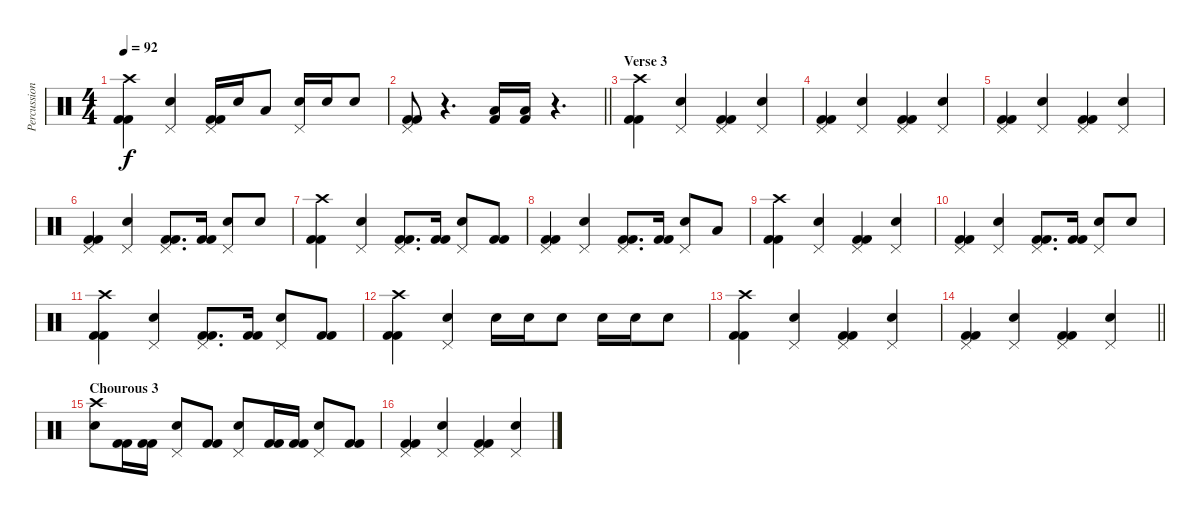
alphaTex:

\track ("Percussion" "Percussion") {instrument percussion}
\staff {score}
\articulation defaults
\ts (4 4)
\tempo 92
\clef neutral
\ks c
("Crash high (hit)" "Kick (hit) 2" "Kick (hit) 2").4{dy f} ("Pedal Hi-Hat (hit)" "Electric Snare (hit)").4 ("Pedal Hi-Hat (hit)" "Kick (hit) 2" "Kick (hit) 2").16 "Electric Snare (hit)".16 "Low Tom (hit)".8 ("Pedal Hi-Hat (hit)" "Electric Snare (hit)").16 "Electric Snare (hit)".16 "Electric Snare (hit)".8 |
\barLineRight lightlight
("Pedal Hi-Hat (hit)" "Kick (hit) 2" "Kick (hit) 2").8 r.4{d} ("Low Tom (hit)" "Kick (hit) 2").16 ("Low Tom (hit)" "Kick (hit) 2").16 r.4{d} |
\section ("" "Verse 3")
("Crash high (hit)" "Kick (hit) 2" "Kick (hit) 2").4 ("Pedal Hi-Hat (hit)" "Electric Snare (hit)").4 ("Pedal Hi-Hat (hit)" "Kick (hit) 2" "Kick (hit) 2").4 ("Pedal Hi-Hat (hit)" "Electric Snare (hit)").4 |
("Pedal Hi-Hat (hit)" "Kick (hit) 2" "Kick (hit) 2").4 ("Pedal Hi-Hat (hit)" "Electric Snare (hit)").4 ("Pedal Hi-Hat (hit)" "Kick (hit) 2" "Kick (hit) 2").4 ("Pedal Hi-Hat (hit)" "Electric Snare (hit)").4 |
("Pedal Hi-Hat (hit)" "Kick (hit) 2" "Kick (hit) 2").4 ("Pedal Hi-Hat (hit)" "Electric Snare (hit)").4 ("Pedal Hi-Hat (hit)" "Kick (hit) 2" "Kick (hit) 2").4 ("Pedal Hi-Hat (hit)" "Electric Snare (hit)").4 |
("Pedal Hi-Hat (hit)" "Kick (hit) 2" "Kick (hit) 2").4 ("Pedal Hi-Hat (hit)" "Electric Snare (hit)").4 ("Pedal Hi-Hat (hit)" "Kick (hit) 2" "Kick (hit) 2").8{d} ("Kick (hit) 2" "Kick (hit) 2").16 ("Pedal Hi-Hat (hit)" "Electric Snare (hit)").8 "Electric Snare (hit)".8 |
("Crash high (hit)" "Kick (hit) 2" "Kick (hit) 2").4 ("Pedal Hi-Hat (hit)" "Electric Snare (hit)").4 ("Pedal Hi-Hat (hit)" "Kick (hit) 2" "Kick (hit) 2").8{d} ("Kick (hit) 2" "Kick (hit) 2").16 ("Pedal Hi-Hat (hit)" "Electric Snare (hit)").8 ("Kick (hit) 2" "Kick (hit) 2").8 |
("Pedal Hi-Hat (hit)" "Kick (hit) 2" "Kick (hit) 2").4 ("Pedal Hi-Hat (hit)" "Electric Snare (hit)").4 ("Pedal Hi-Hat (hit)" "Kick (hit) 2" "Kick (hit) 2").8{d} ("Kick (hit) 2" "Kick (hit) 2").16 ("Pedal Hi-Hat (hit)" "Electric Snare (hit)").8 "Low Tom (hit)".8 |
("Crash high (hit)" "Kick (hit) 2" "Kick (hit) 2").4 ("Pedal Hi-Hat (hit)" "Electric Snare (hit)").4 ("Pedal Hi-Hat (hit)" "Kick (hit) 2" "Kick (hit) 2").4 ("Pedal Hi-Hat (hit)" "Electric Snare (hit)").4 |
("Pedal Hi-Hat (hit)" "Kick (hit) 2" "Kick (hit) 2").4 ("Pedal Hi-Hat (hit)" "Electric Snare (hit)").4 ("Pedal Hi-Hat (hit)" "Kick (hit) 2" "Kick (hit) 2").8{d} ("Kick (hit) 2" "Kick (hit) 2").16 ("Pedal Hi-Hat (hit)" "Electric Snare (hit)").8 "Electric Snare (hit)".8 |
("Crash high (hit)" "Kick (hit) 2" "Kick (hit) 2").4 ("Pedal Hi-Hat (hit)" "Electric Snare (hit)").4 ("Pedal Hi-Hat (hit)" "Kick (hit) 2" "Kick (hit) 2").8{d} ("Kick (hit) 2" "Kick (hit) 2").16 ("Pedal Hi-Hat (hit)" "Electric Snare (hit)").8 ("Kick (hit) 2" "Kick (hit) 2").8 |
("Crash high (hit)" "Kick (hit) 2" "Kick (hit) 2").4 ("Pedal Hi-Hat (hit)" "Electric Snare (hit)").4 "Electric Snare (hit)".16 "Electric Snare (hit)".16 "Electric Snare (hit)".8 "Electric Snare (hit)".16 "Electric Snare (hit)".16 "Electric Snare (hit)".8 |
("Crash high (hit)" "Kick (hit) 2" "Kick (hit) 2").4 ("Pedal Hi-Hat (hit)" "Electric Snare (hit)").4 ("Pedal Hi-Hat (hit)" "Kick (hit) 2" "Kick (hit) 2").4 ("Pedal Hi-Hat (hit)" "Electric Snare (hit)").4 |
\barLineRight lightlight
("Pedal Hi-Hat (hit)" "Kick (hit) 2" "Kick (hit) 2").4 ("Pedal Hi-Hat (hit)" "Electric Snare (hit)").4 ("Pedal Hi-Hat (hit)" "Kick (hit) 2" "Kick (hit) 2").4 ("Pedal Hi-Hat (hit)" "Electric Snare (hit)").4 |
\section ("" "Chourous 3")
("Crash high (hit)" "Electric Snare (hit)").8 ("Kick (hit) 2" "Kick (hit) 2").16 ("Kick (hit) 2" "Kick (hit) 2").16 ("Pedal Hi-Hat (hit)" "Electric Snare (hit)").8 ("Kick (hit) 2" "Kick (hit) 2").8 ("Pedal Hi-Hat (hit)" "Electric Snare (hit)").8 ("Kick (hit) 2" "Kick (hit) 2").16 ("Kick (hit) 2" "Kick (hit) 2").16 ("Pedal Hi-Hat (hit)" "Electric Snare (hit)").8 ("Kick (hit) 2" "Kick (hit) 2").8 |
("Pedal Hi-Hat (hit)" "Kick (hit) 2" "Kick (hit) 2").4 ("Pedal Hi-Hat (hit)" "Electric Snare (hit)").4 ("Pedal Hi-Hat (hit)" "Kick (hit) 2" "Kick (hit) 2").4 ("Pedal Hi-Hat (hit)" "Electric Snare (hit)").4
